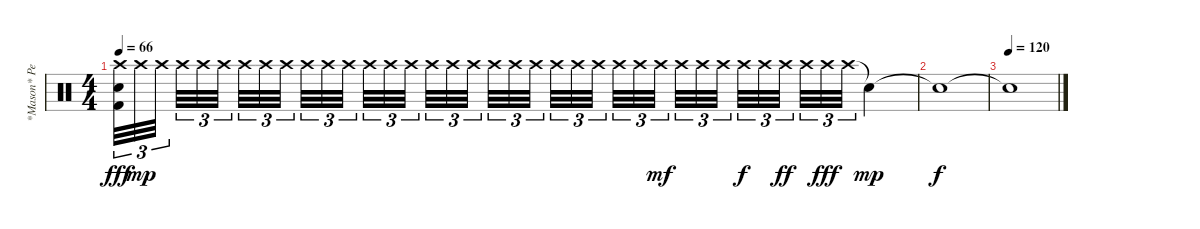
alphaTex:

\track ("*Mason* Percussion" "*Mason* Pe") {instrument percussion}
\staff {score}
\articulation defaults
\ts (4 4)
\tempo 66
\clef neutral
\ks c
("Crash high (hit)" "Snare (hit) 2" "Kick (hit) 2").32{tu (3 2) dy fff volume 16} "Crash high (hit)".32{tu (3 2) dy mp} "Crash high (hit)".32{tu (3 2) beam splitsecondary} "Crash high (hit)".32{tu (3 2)} "Crash high (hit)".32{tu (3 2)} "Crash high (hit)".32{tu (3 2) beam splitsecondary} "Crash high (hit)".32{tu (3 2)} "Crash high (hit)".32{tu (3 2)} "Crash high (hit)".32{tu (3 2) beam splitsecondary} "Crash high (hit)".32{tu (3 2)} "Crash high (hit)".32{tu (3 2)} "Crash high (hit)".32{tu (3 2)} "Crash high (hit)".32{tu (3 2)} "Crash high (hit)".32{tu (3 2)} "Crash high (hit)".32{tu (3 2) beam splitsecondary} "Crash high (hit)".32{tu (3 2)} "Crash high (hit)".32{tu (3 2)} "Crash high (hit)".32{tu (3 2) beam splitsecondary} "Crash high (hit)".32{tu (3 2)} "Crash high (hit)".32{tu (3 2)} "Crash high (hit)".32{tu (3 2) beam splitsecondary} "Crash high (hit)".32{tu (3 2)} "Crash high (hit)".32{tu (3 2)} "Crash high (hit)".32{tu (3 2)} "Crash high (hit)".32{tu (3 2)} "Crash high (hit)".32{tu (3 2)} "Crash high (hit)".32{tu (3 2) dy mf beam splitsecondary} "Crash high (hit)".32{tu (3 2)} "Crash high (hit)".32{tu (3 2)} "Crash high (hit)".32{tu (3 2) beam splitsecondary} "Crash high (hit)".32{tu (3 2) dy f} "Crash high (hit)".32{tu (3 2)} "Crash high (hit)".32{tu (3 2) dy ff beam splitsecondary} "Crash high (hit)".32{tu (3 2)} "Crash high (hit)".32{tu (3 2) dy fff} "Crash high (hit)".32{tu (3 2)} "Snare (hit)"{t}.4{dy mp} |
"Snare (hit)"{t}.1{dy f} |
\tempo (120)
"Snare (hit)"{t}.1
